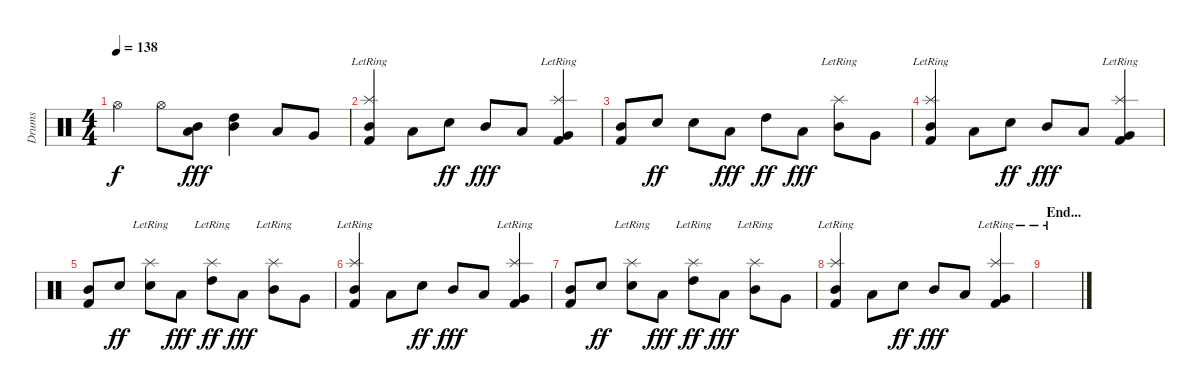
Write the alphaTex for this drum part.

\track ("Drums" "Drums") {instrument percussion}
\staff {score}
\articulation defaults
\ts (4 4)
\tempo 138
\clef neutral
\ks c "Hi-Hat (open)".4{dy f} "Hi-Hat (open)".8
("Mid Tom (hit)" "Low Tom (hit)").8{dy fff} ("High Tom (hit)" "Mid Tom (hit)").4 "Low Tom (hit)".8 "Very Low Tom (hit)".8 |
("Splash (hit)"{lr} "Mid Tom (hit)" "Kick (hit) 2").4 "Low Tom (hit)".8 "Snare (hit) 2".8{dy ff} "Mid Tom (hit)".8{dy fff} "Low Tom (hit)".8 ("Splash (hit)"{lr} "Very Low Tom (hit)" "Kick (hit) 2").4 |
("Mid Tom (hit)" "Kick (hit) 2").8 "Snare (hit) 2".8{dy ff} "Snare (hit) 2".8 "Low Tom (hit)".8{dy fff} "High Tom (hit)".8{dy ff} "Low Tom (hit)".8{dy fff} ("Splash (hit)"{lr} "Mid Tom (hit)").8 "Very Low Tom (hit)".8 |
("Splash (hit)"{lr} "Mid Tom (hit)" "Kick (hit) 2").4 "Low Tom (hit)".8 "Snare (hit) 2".8{dy ff} "Mid Tom (hit)".8{dy fff} "Low Tom (hit)".8 ("Splash (hit)"{lr} "Very Low Tom (hit)" "Kick (hit) 2").4 |
("Mid Tom (hit)" "Kick (hit) 2").8 "Snare (hit) 2".8{dy ff} ("Splash (hit)"{lr} "Snare (hit) 2").8 "Low Tom (hit)".8{dy fff} ("Splash (hit)"{lr} "High Tom (hit)").8{dy ff} "Low Tom (hit)".8{dy fff} ("Splash (hit)"{lr} "Mid Tom (hit)").8 "Very Low Tom (hit)".8 |
("Splash (hit)"{lr} "Mid Tom (hit)" "Kick (hit) 2").4 "Low Tom (hit)".8 "Snare (hit) 2".8{dy ff} "Mid Tom (hit)".8{dy fff} "Low Tom (hit)".8 ("Splash (hit)"{lr} "Very Low Tom (hit)" "Kick (hit) 2").4 |
("Mid Tom (hit)" "Kick (hit) 2").8 "Snare (hit) 2".8{dy ff} ("Splash (hit)"{lr} "Snare (hit) 2").8 "Low Tom (hit)".8{dy fff} ("Splash (hit)"{lr} "High Tom (hit)").8{dy ff} "Low Tom (hit)".8{dy fff} ("Splash (hit)"{lr} "Mid Tom (hit)").8 "Very Low Tom (hit)".8 |
("Splash (hit)"{lr} "Mid Tom (hit)" "Kick (hit) 2").4 "Low Tom (hit)".8 "Snare (hit) 2".8{dy ff} "Mid Tom (hit)".8{dy fff} "Low Tom (hit)".8 ("Splash (hit)"{lr} "Very Low Tom (hit)" "Kick (hit) 2").4 |
\section ("" "End...")
